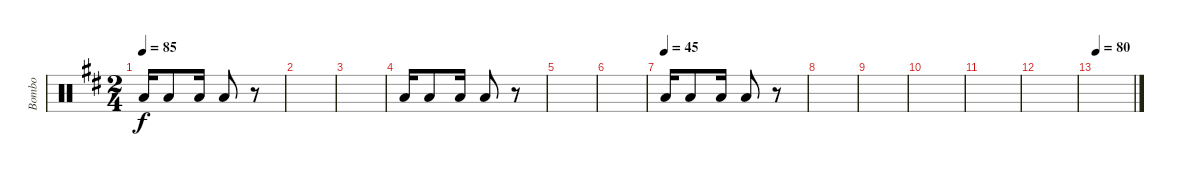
\track ("Bombo" "Bombo") {instrument percussion}
\staff {score}
\articulation defaults
\ts (2 4)
\tempo 85
\clef neutral
\ks d "Low Floor Tom (hit)".16{dy f} "Low Floor Tom (hit)".8 "Low Floor Tom (hit)".16 "Low Floor Tom (hit)".8
r.8 |
|
|
"Low Floor Tom (hit)".16 "Low Floor Tom (hit)".8 "Low Floor Tom (hit)".16 "Low Floor Tom (hit)".8 r.8 |
|
|
\tempo (45)
"Low Floor Tom (hit)".16 "Low Floor Tom (hit)".8 "Low Floor Tom (hit)".16 "Low Floor Tom (hit)".8 r.8 |
|
|
|
|
|
\tempo 80
